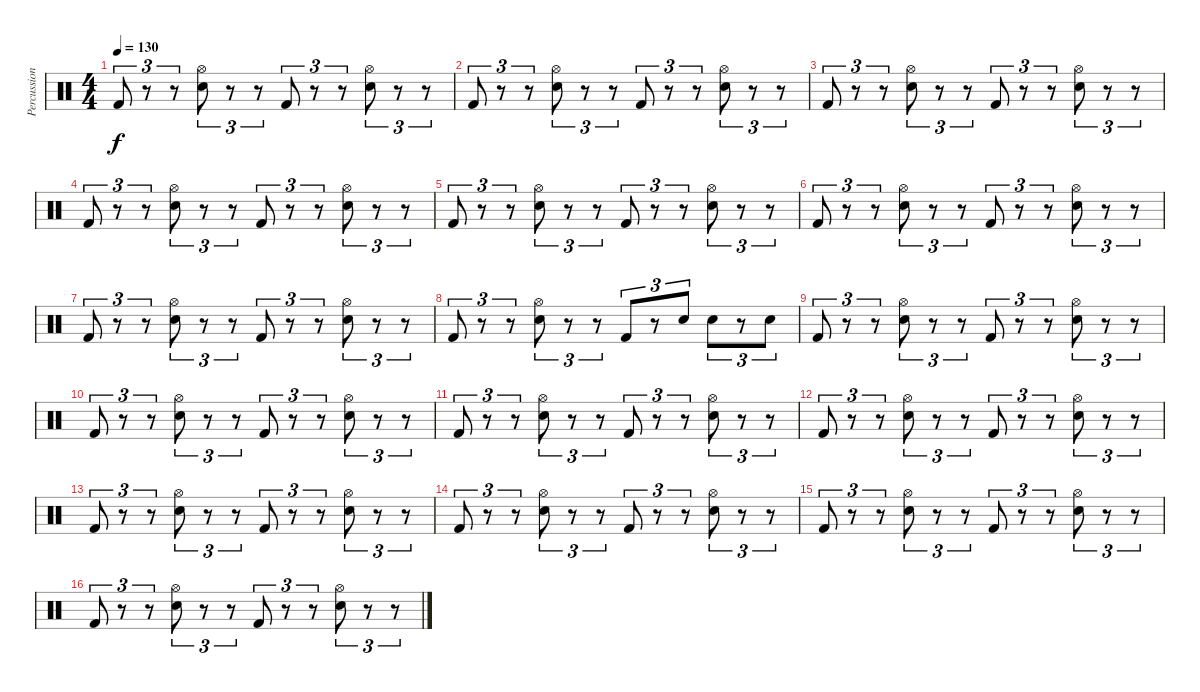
\track ("Percussion" "Percussion") {instrument percussion bank 2}
\staff {score}
\articulation defaults
\ts (4 4)
\tempo 130
\clef neutral
\ks c "Kick (hit) 2".8{tu (3 2) dy f}
r.8{tu (3 2)} r.8{tu (3 2)} ("Hi-Hat (open)" "Snare (hit) 2").8{tu (3 2)} r.8{tu (3 2)} r.8{tu (3 2)} "Kick (hit) 2".8{tu (3 2)} r.8{tu (3 2)} r.8{tu (3 2)} ("Hi-Hat (open)" "Snare (hit) 2").8{tu (3 2)} r.8{tu (3 2)} r.8{tu (3 2)} |
"Kick (hit) 2".8{tu (3 2)} r.8{tu (3 2)} r.8{tu (3 2)} ("Hi-Hat (open)" "Snare (hit) 2").8{tu (3 2)} r.8{tu (3 2)} r.8{tu (3 2)} "Kick (hit) 2".8{tu (3 2)} r.8{tu (3 2)} r.8{tu (3 2)} ("Hi-Hat (open)" "Snare (hit) 2").8{tu (3 2)} r.8{tu (3 2)} r.8{tu (3 2)} |
"Kick (hit) 2".8{tu (3 2)} r.8{tu (3 2)} r.8{tu (3 2)} ("Hi-Hat (open)" "Snare (hit) 2").8{tu (3 2)} r.8{tu (3 2)} r.8{tu (3 2)} "Kick (hit) 2".8{tu (3 2)} r.8{tu (3 2)} r.8{tu (3 2)} ("Hi-Hat (open)" "Snare (hit) 2").8{tu (3 2)} r.8{tu (3 2)} r.8{tu (3 2)} |
"Kick (hit) 2".8{tu (3 2)} r.8{tu (3 2)} r.8{tu (3 2)} ("Hi-Hat (open)" "Snare (hit) 2").8{tu (3 2)} r.8{tu (3 2)} r.8{tu (3 2)} "Kick (hit) 2".8{tu (3 2)} r.8{tu (3 2)} r.8{tu (3 2)} ("Hi-Hat (open)" "Snare (hit) 2").8{tu (3 2)} r.8{tu (3 2)} r.8{tu (3 2)} |
"Kick (hit) 2".8{tu (3 2)} r.8{tu (3 2)} r.8{tu (3 2)} ("Hi-Hat (open)" "Snare (hit) 2").8{tu (3 2)} r.8{tu (3 2)} r.8{tu (3 2)} "Kick (hit) 2".8{tu (3 2)} r.8{tu (3 2)} r.8{tu (3 2)} ("Hi-Hat (open)" "Snare (hit) 2").8{tu (3 2)} r.8{tu (3 2)} r.8{tu (3 2)} |
"Kick (hit) 2".8{tu (3 2)} r.8{tu (3 2)} r.8{tu (3 2)} ("Hi-Hat (open)" "Snare (hit) 2").8{tu (3 2)} r.8{tu (3 2)} r.8{tu (3 2)} "Kick (hit) 2".8{tu (3 2)} r.8{tu (3 2)} r.8{tu (3 2)} ("Hi-Hat (open)" "Snare (hit) 2").8{tu (3 2)} r.8{tu (3 2)} r.8{tu (3 2)} |
"Kick (hit) 2".8{tu (3 2)} r.8{tu (3 2)} r.8{tu (3 2)} ("Hi-Hat (open)" "Snare (hit) 2").8{tu (3 2)} r.8{tu (3 2)} r.8{tu (3 2)} "Kick (hit) 2".8{tu (3 2)} r.8{tu (3 2)} r.8{tu (3 2)} ("Hi-Hat (open)" "Snare (hit) 2").8{tu (3 2)} r.8{tu (3 2)} r.8{tu (3 2)} |
"Kick (hit) 2".8{tu (3 2)} r.8{tu (3 2)} r.8{tu (3 2)} ("Hi-Hat (open)" "Snare (hit) 2").8{tu (3 2)} r.8{tu (3 2)} r.8{tu (3 2)} "Kick (hit) 2".8{tu (3 2)} r.8{tu (3 2)} "Snare (hit) 2".8{tu (3 2)} "Snare (hit) 2".8{tu (3 2)} r.8{tu (3 2)} "Snare (hit) 2".8{tu (3 2)} |
"Kick (hit) 2".8{tu (3 2)} r.8{tu (3 2)} r.8{tu (3 2)} ("Hi-Hat (open)" "Snare (hit) 2").8{tu (3 2)} r.8{tu (3 2)} r.8{tu (3 2)} "Kick (hit) 2".8{tu (3 2)} r.8{tu (3 2)} r.8{tu (3 2)} ("Hi-Hat (open)" "Snare (hit) 2").8{tu (3 2)} r.8{tu (3 2)} r.8{tu (3 2)} |
"Kick (hit) 2".8{tu (3 2)} r.8{tu (3 2)} r.8{tu (3 2)} ("Hi-Hat (open)" "Snare (hit) 2").8{tu (3 2)} r.8{tu (3 2)} r.8{tu (3 2)} "Kick (hit) 2".8{tu (3 2)} r.8{tu (3 2)} r.8{tu (3 2)} ("Hi-Hat (open)" "Snare (hit) 2").8{tu (3 2)} r.8{tu (3 2)} r.8{tu (3 2)} |
"Kick (hit) 2".8{tu (3 2)} r.8{tu (3 2)} r.8{tu (3 2)} ("Hi-Hat (open)" "Snare (hit) 2").8{tu (3 2)} r.8{tu (3 2)} r.8{tu (3 2)} "Kick (hit) 2".8{tu (3 2)} r.8{tu (3 2)} r.8{tu (3 2)} ("Hi-Hat (open)" "Snare (hit) 2").8{tu (3 2)} r.8{tu (3 2)} r.8{tu (3 2)} |
"Kick (hit) 2".8{tu (3 2)} r.8{tu (3 2)} r.8{tu (3 2)} ("Hi-Hat (open)" "Snare (hit) 2").8{tu (3 2)} r.8{tu (3 2)} r.8{tu (3 2)} "Kick (hit) 2".8{tu (3 2)} r.8{tu (3 2)} r.8{tu (3 2)} ("Hi-Hat (open)" "Snare (hit) 2").8{tu (3 2)} r.8{tu (3 2)} r.8{tu (3 2)} |
"Kick (hit) 2".8{tu (3 2)} r.8{tu (3 2)} r.8{tu (3 2)} ("Hi-Hat (open)" "Snare (hit) 2").8{tu (3 2)} r.8{tu (3 2)} r.8{tu (3 2)} "Kick (hit) 2".8{tu (3 2)} r.8{tu (3 2)} r.8{tu (3 2)} ("Hi-Hat (open)" "Snare (hit) 2").8{tu (3 2)} r.8{tu (3 2)} r.8{tu (3 2)} |
"Kick (hit) 2".8{tu (3 2)} r.8{tu (3 2)} r.8{tu (3 2)} ("Hi-Hat (open)" "Snare (hit) 2").8{tu (3 2)} r.8{tu (3 2)} r.8{tu (3 2)} "Kick (hit) 2".8{tu (3 2)} r.8{tu (3 2)} r.8{tu (3 2)} ("Hi-Hat (open)" "Snare (hit) 2").8{tu (3 2)} r.8{tu (3 2)} r.8{tu (3 2)} |
"Kick (hit) 2".8{tu (3 2)} r.8{tu (3 2)} r.8{tu (3 2)} ("Hi-Hat (open)" "Snare (hit) 2").8{tu (3 2)} r.8{tu (3 2)} r.8{tu (3 2)} "Kick (hit) 2".8{tu (3 2)} r.8{tu (3 2)} r.8{tu (3 2)} ("Hi-Hat (open)" "Snare (hit) 2").8{tu (3 2)} r.8{tu (3 2)} r.8{tu (3 2)} |
"Kick (hit) 2".8{tu (3 2)} r.8{tu (3 2)} r.8{tu (3 2)} ("Hi-Hat (open)" "Snare (hit) 2").8{tu (3 2)} r.8{tu (3 2)} r.8{tu (3 2)} "Kick (hit) 2".8{tu (3 2)} r.8{tu (3 2)} r.8{tu (3 2)} ("Hi-Hat (open)" "Snare (hit) 2").8{tu (3 2)} r.8{tu (3 2)} r.8{tu (3 2)}
